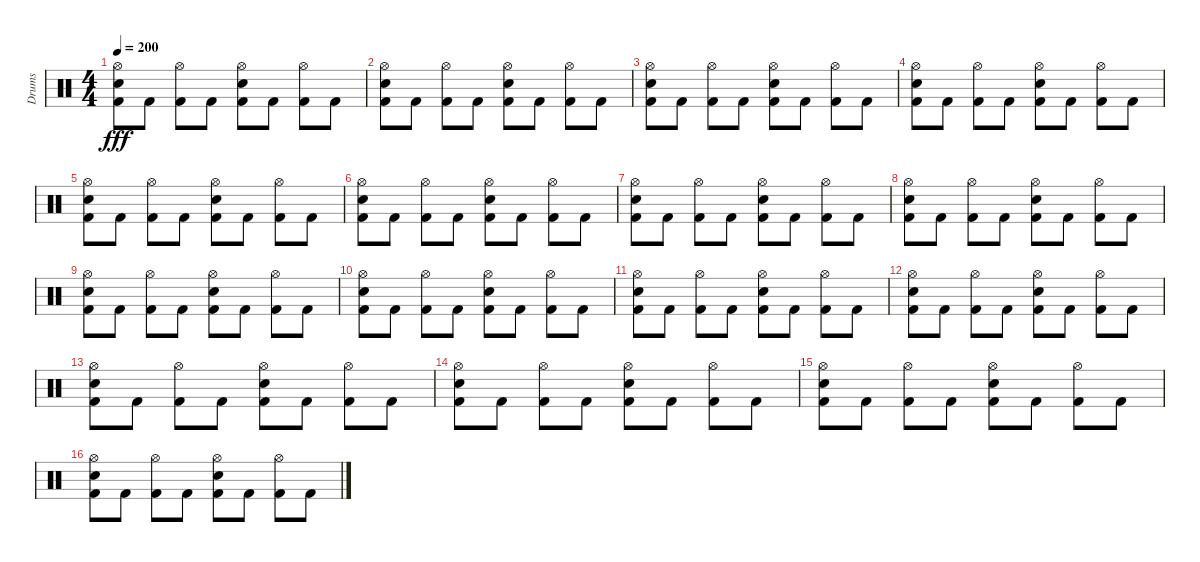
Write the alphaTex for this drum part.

\track ("Drums" "Drums") {instrument percussion}
\staff {score}
\articulation defaults
\ts (4 4)
\tempo 200
\clef neutral
\ks c
("Hi-Hat (open)" "Electric Snare (hit)" "Kick (hit) 2").8{dy fff} "Kick (hit) 2".8 ("Hi-Hat (open)" "Kick (hit) 2").8 "Kick (hit) 2".8 ("Hi-Hat (open)" "Electric Snare (hit)" "Kick (hit) 2").8 "Kick (hit) 2".8 ("Hi-Hat (open)" "Kick (hit) 2").8 "Kick (hit) 2".8 |
("Hi-Hat (open)" "Electric Snare (hit)" "Kick (hit) 2").8 "Kick (hit) 2".8 ("Hi-Hat (open)" "Kick (hit) 2").8 "Kick (hit) 2".8 ("Hi-Hat (open)" "Electric Snare (hit)" "Kick (hit) 2").8 "Kick (hit) 2".8 ("Hi-Hat (open)" "Kick (hit) 2").8 "Kick (hit) 2".8 |
("Hi-Hat (open)" "Electric Snare (hit)" "Kick (hit) 2").8 "Kick (hit) 2".8 ("Hi-Hat (open)" "Kick (hit) 2").8 "Kick (hit) 2".8 ("Hi-Hat (open)" "Electric Snare (hit)" "Kick (hit) 2").8 "Kick (hit) 2".8 ("Hi-Hat (open)" "Kick (hit) 2").8 "Kick (hit) 2".8 |
("Hi-Hat (open)" "Electric Snare (hit)" "Kick (hit) 2").8 "Kick (hit) 2".8 ("Hi-Hat (open)" "Kick (hit) 2").8 "Kick (hit) 2".8 ("Hi-Hat (open)" "Electric Snare (hit)" "Kick (hit) 2").8 "Kick (hit) 2".8 ("Hi-Hat (open)" "Kick (hit) 2").8 "Kick (hit) 2".8 |
("Hi-Hat (open)" "Electric Snare (hit)" "Kick (hit) 2").8 "Kick (hit) 2".8 ("Hi-Hat (open)" "Kick (hit) 2").8 "Kick (hit) 2".8 ("Hi-Hat (open)" "Electric Snare (hit)" "Kick (hit) 2").8 "Kick (hit) 2".8 ("Hi-Hat (open)" "Kick (hit) 2").8 "Kick (hit) 2".8 |
("Hi-Hat (open)" "Electric Snare (hit)" "Kick (hit) 2").8 "Kick (hit) 2".8 ("Hi-Hat (open)" "Kick (hit) 2").8 "Kick (hit) 2".8 ("Hi-Hat (open)" "Electric Snare (hit)" "Kick (hit) 2").8 "Kick (hit) 2".8 ("Hi-Hat (open)" "Kick (hit) 2").8 "Kick (hit) 2".8 |
("Hi-Hat (open)" "Electric Snare (hit)" "Kick (hit) 2").8 "Kick (hit) 2".8 ("Hi-Hat (open)" "Kick (hit) 2").8 "Kick (hit) 2".8 ("Hi-Hat (open)" "Electric Snare (hit)" "Kick (hit) 2").8 "Kick (hit) 2".8 ("Hi-Hat (open)" "Kick (hit) 2").8 "Kick (hit) 2".8 |
("Hi-Hat (open)" "Electric Snare (hit)" "Kick (hit) 2").8 "Kick (hit) 2".8 ("Hi-Hat (open)" "Kick (hit) 2").8 "Kick (hit) 2".8 ("Hi-Hat (open)" "Electric Snare (hit)" "Kick (hit) 2").8 "Kick (hit) 2".8 ("Hi-Hat (open)" "Kick (hit) 2").8 "Kick (hit) 2".8 |
("Hi-Hat (open)" "Electric Snare (hit)" "Kick (hit) 2").8 "Kick (hit) 2".8 ("Hi-Hat (open)" "Kick (hit) 2").8 "Kick (hit) 2".8 ("Hi-Hat (open)" "Electric Snare (hit)" "Kick (hit) 2").8 "Kick (hit) 2".8 ("Hi-Hat (open)" "Kick (hit) 2").8 "Kick (hit) 2".8 |
("Hi-Hat (open)" "Electric Snare (hit)" "Kick (hit) 2").8 "Kick (hit) 2".8 ("Hi-Hat (open)" "Kick (hit) 2").8 "Kick (hit) 2".8 ("Hi-Hat (open)" "Electric Snare (hit)" "Kick (hit) 2").8 "Kick (hit) 2".8 ("Hi-Hat (open)" "Kick (hit) 2").8 "Kick (hit) 2".8 |
("Hi-Hat (open)" "Electric Snare (hit)" "Kick (hit) 2").8 "Kick (hit) 2".8 ("Hi-Hat (open)" "Kick (hit) 2").8 "Kick (hit) 2".8 ("Hi-Hat (open)" "Electric Snare (hit)" "Kick (hit) 2").8 "Kick (hit) 2".8 ("Hi-Hat (open)" "Kick (hit) 2").8 "Kick (hit) 2".8 |
("Hi-Hat (open)" "Electric Snare (hit)" "Kick (hit) 2").8 "Kick (hit) 2".8 ("Hi-Hat (open)" "Kick (hit) 2").8 "Kick (hit) 2".8 ("Hi-Hat (open)" "Electric Snare (hit)" "Kick (hit) 2").8 "Kick (hit) 2".8 ("Hi-Hat (open)" "Kick (hit) 2").8 "Kick (hit) 2".8 |
("Hi-Hat (open)" "Electric Snare (hit)" "Kick (hit) 2").8 "Kick (hit) 2".8 ("Hi-Hat (open)" "Kick (hit) 2").8 "Kick (hit) 2".8 ("Hi-Hat (open)" "Electric Snare (hit)" "Kick (hit) 2").8 "Kick (hit) 2".8 ("Hi-Hat (open)" "Kick (hit) 2").8 "Kick (hit) 2".8 |
("Hi-Hat (open)" "Electric Snare (hit)" "Kick (hit) 2").8 "Kick (hit) 2".8 ("Hi-Hat (open)" "Kick (hit) 2").8 "Kick (hit) 2".8 ("Hi-Hat (open)" "Electric Snare (hit)" "Kick (hit) 2").8 "Kick (hit) 2".8 ("Hi-Hat (open)" "Kick (hit) 2").8 "Kick (hit) 2".8 |
("Hi-Hat (open)" "Electric Snare (hit)" "Kick (hit) 2").8 "Kick (hit) 2".8 ("Hi-Hat (open)" "Kick (hit) 2").8 "Kick (hit) 2".8 ("Hi-Hat (open)" "Electric Snare (hit)" "Kick (hit) 2").8 "Kick (hit) 2".8 ("Hi-Hat (open)" "Kick (hit) 2").8 "Kick (hit) 2".8 |
("Hi-Hat (open)" "Electric Snare (hit)" "Kick (hit) 2").8 "Kick (hit) 2".8 ("Hi-Hat (open)" "Kick (hit) 2").8 "Kick (hit) 2".8 ("Hi-Hat (open)" "Electric Snare (hit)" "Kick (hit) 2").8 "Kick (hit) 2".8 ("Hi-Hat (open)" "Kick (hit) 2").8 "Kick (hit) 2".8
